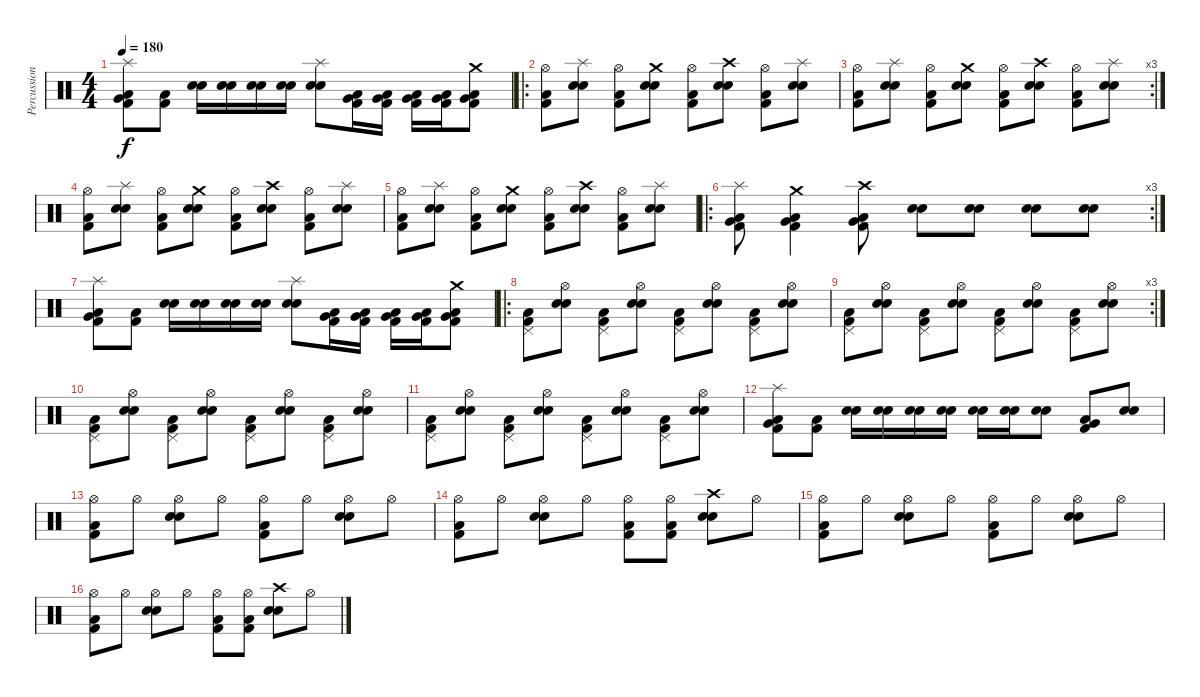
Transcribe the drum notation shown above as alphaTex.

\track ("Percussions" "Percussion") {instrument percussion}
\staff {score}
\articulation defaults
\ts (4 4)
\tempo 180
\clef neutral
\ks c
("Splash (hit)" "Kick (hit) 2" "Low Floor Tom (hit)" "Very Low Tom (hit)").8{dy f} ("Kick (hit) 2" "Low Floor Tom (hit)").8 ("Snare (hit) 2" "Electric Snare (hit)").16 ("Snare (hit) 2" "Electric Snare (hit)").16 ("Snare (hit) 2" "Electric Snare (hit)").16 ("Snare (hit) 2" "Electric Snare (hit)").16 ("Splash (hit)" "Snare (hit) 2" "Electric Snare (hit)").8 ("Kick (hit) 2" "Low Floor Tom (hit)" "Very Low Tom (hit)").16 ("Kick (hit) 2" "Low Floor Tom (hit)" "Very Low Tom (hit)").16 ("Kick (hit) 2" "Low Floor Tom (hit)" "Very Low Tom (hit)").16 ("Kick (hit) 2" "Low Floor Tom (hit)" "Very Low Tom (hit)").16 ("Crash medium (hit)" "Kick (hit) 2" "Low Floor Tom (hit)" "Very Low Tom (hit)").8 |
\ro
("Hi-Hat (open)" "Kick (hit) 2" "Low Floor Tom (hit)").8 ("Splash (hit)" "Snare (hit) 2" "Electric Snare (hit)").8 ("Hi-Hat (open)" "Kick (hit) 2" "Low Floor Tom (hit)").8 ("Crash medium (hit)" "Snare (hit) 2" "Electric Snare (hit)").8 ("Hi-Hat (open)" "Kick (hit) 2" "Low Floor Tom (hit)").8 ("Crash high (hit)" "Snare (hit) 2" "Electric Snare (hit)").8 ("Hi-Hat (open)" "Kick (hit) 2" "Low Floor Tom (hit)").8 ("Splash (hit)" "Snare (hit) 2" "Electric Snare (hit)").8 |
\rc 3
("Hi-Hat (open)" "Kick (hit) 2" "Low Floor Tom (hit)").8 ("Splash (hit)" "Snare (hit) 2" "Electric Snare (hit)").8 ("Hi-Hat (open)" "Kick (hit) 2" "Low Floor Tom (hit)").8 ("Crash medium (hit)" "Snare (hit) 2" "Electric Snare (hit)").8 ("Hi-Hat (open)" "Kick (hit) 2" "Low Floor Tom (hit)").8 ("Crash high (hit)" "Snare (hit) 2" "Electric Snare (hit)").8 ("Hi-Hat (open)" "Kick (hit) 2" "Low Floor Tom (hit)").8 ("Splash (hit)" "Snare (hit) 2" "Electric Snare (hit)").8 |
("Hi-Hat (open)" "Kick (hit) 2" "Low Floor Tom (hit)").8 ("Splash (hit)" "Snare (hit) 2" "Electric Snare (hit)").8 ("Hi-Hat (open)" "Kick (hit) 2" "Low Floor Tom (hit)").8 ("Crash medium (hit)" "Snare (hit) 2" "Electric Snare (hit)").8 ("Hi-Hat (open)" "Kick (hit) 2" "Low Floor Tom (hit)").8 ("Crash high (hit)" "Snare (hit) 2" "Electric Snare (hit)").8 ("Hi-Hat (open)" "Kick (hit) 2" "Low Floor Tom (hit)").8 ("Splash (hit)" "Snare (hit) 2" "Electric Snare (hit)").8 |
("Hi-Hat (open)" "Kick (hit) 2" "Low Floor Tom (hit)").8 ("Splash (hit)" "Snare (hit) 2" "Electric Snare (hit)").8 ("Hi-Hat (open)" "Kick (hit) 2" "Low Floor Tom (hit)").8 ("Crash medium (hit)" "Snare (hit) 2" "Electric Snare (hit)").8 ("Hi-Hat (open)" "Kick (hit) 2" "Low Floor Tom (hit)").8 ("Crash high (hit)" "Snare (hit) 2" "Electric Snare (hit)").8 ("Hi-Hat (open)" "Kick (hit) 2" "Low Floor Tom (hit)").8 ("Splash (hit)" "Snare (hit) 2" "Electric Snare (hit)").8 |
\ro
\rc 3
("Splash (hit)" "Kick (hit) 2" "Low Floor Tom (hit)" "Very Low Tom (hit)").8 ("Crash medium (hit)" "Kick (hit) 2" "Low Floor Tom (hit)" "Very Low Tom (hit)").4 ("Crash high (hit)" "Kick (hit) 2" "Low Floor Tom (hit)" "Very Low Tom (hit)").8 ("Snare (hit) 2" "Electric Snare (hit)").8 ("Snare (hit) 2" "Electric Snare (hit)").8 ("Snare (hit) 2" "Electric Snare (hit)").8 ("Snare (hit) 2" "Electric Snare (hit)").8 |
("Splash (hit)" "Kick (hit) 2" "Low Floor Tom (hit)" "Very Low Tom (hit)").8 ("Kick (hit) 2" "Low Floor Tom (hit)").8 ("Snare (hit) 2" "Electric Snare (hit)").16 ("Snare (hit) 2" "Electric Snare (hit)").16 ("Snare (hit) 2" "Electric Snare (hit)").16 ("Snare (hit) 2" "Electric Snare (hit)").16 ("Splash (hit)" "Snare (hit) 2" "Electric Snare (hit)").8 ("Kick (hit) 2" "Low Floor Tom (hit)" "Very Low Tom (hit)").16 ("Kick (hit) 2" "Low Floor Tom (hit)" "Very Low Tom (hit)").16 ("Kick (hit) 2" "Low Floor Tom (hit)" "Very Low Tom (hit)").16 ("Kick (hit) 2" "Low Floor Tom (hit)" "Very Low Tom (hit)").16 ("Crash medium (hit)" "Kick (hit) 2" "Low Floor Tom (hit)" "Very Low Tom (hit)").8 |
\ro
("Pedal Hi-Hat (hit)" "Kick (hit) 2" "Low Floor Tom (hit)").8 ("Hi-Hat (open)" "Snare (hit) 2" "Electric Snare (hit)").8 ("Pedal Hi-Hat (hit)" "Kick (hit) 2" "Low Floor Tom (hit)").8 ("Hi-Hat (open)" "Snare (hit) 2" "Electric Snare (hit)").8 ("Pedal Hi-Hat (hit)" "Kick (hit) 2" "Low Floor Tom (hit)").8 ("Hi-Hat (open)" "Snare (hit) 2" "Electric Snare (hit)").8 ("Pedal Hi-Hat (hit)" "Kick (hit) 2" "Low Floor Tom (hit)").8 ("Hi-Hat (open)" "Snare (hit) 2" "Electric Snare (hit)").8 |
\rc 3
("Pedal Hi-Hat (hit)" "Kick (hit) 2" "Low Floor Tom (hit)").8 ("Hi-Hat (open)" "Snare (hit) 2" "Electric Snare (hit)").8 ("Pedal Hi-Hat (hit)" "Kick (hit) 2" "Low Floor Tom (hit)").8 ("Hi-Hat (open)" "Snare (hit) 2" "Electric Snare (hit)").8 ("Pedal Hi-Hat (hit)" "Kick (hit) 2" "Low Floor Tom (hit)").8 ("Hi-Hat (open)" "Snare (hit) 2" "Electric Snare (hit)").8 ("Pedal Hi-Hat (hit)" "Kick (hit) 2" "Low Floor Tom (hit)").8 ("Hi-Hat (open)" "Snare (hit) 2" "Electric Snare (hit)").8 |
("Pedal Hi-Hat (hit)" "Kick (hit) 2" "Low Floor Tom (hit)").8 ("Hi-Hat (open)" "Snare (hit) 2" "Electric Snare (hit)").8 ("Pedal Hi-Hat (hit)" "Kick (hit) 2" "Low Floor Tom (hit)").8 ("Hi-Hat (open)" "Snare (hit) 2" "Electric Snare (hit)").8 ("Pedal Hi-Hat (hit)" "Kick (hit) 2" "Low Floor Tom (hit)").8 ("Hi-Hat (open)" "Snare (hit) 2" "Electric Snare (hit)").8 ("Pedal Hi-Hat (hit)" "Kick (hit) 2" "Low Floor Tom (hit)").8 ("Hi-Hat (open)" "Snare (hit) 2" "Electric Snare (hit)").8 |
("Pedal Hi-Hat (hit)" "Kick (hit) 2" "Low Floor Tom (hit)").8 ("Hi-Hat (open)" "Snare (hit) 2" "Electric Snare (hit)").8 ("Pedal Hi-Hat (hit)" "Kick (hit) 2" "Low Floor Tom (hit)").8 ("Hi-Hat (open)" "Snare (hit) 2" "Electric Snare (hit)").8 ("Pedal Hi-Hat (hit)" "Kick (hit) 2" "Low Floor Tom (hit)").8 ("Hi-Hat (open)" "Snare (hit) 2" "Electric Snare (hit)").8 ("Pedal Hi-Hat (hit)" "Kick (hit) 2" "Low Floor Tom (hit)").8 ("Hi-Hat (open)" "Snare (hit) 2" "Electric Snare (hit)").8 |
("Splash (hit)" "Kick (hit) 2" "Low Floor Tom (hit)" "Very Low Tom (hit)").8 ("Kick (hit) 2" "Low Floor Tom (hit)").8 ("Snare (hit) 2" "Electric Snare (hit)").16 ("Snare (hit) 2" "Electric Snare (hit)").16 ("Snare (hit) 2" "Electric Snare (hit)").16 ("Snare (hit) 2" "Electric Snare (hit)").16 ("Snare (hit) 2" "Electric Snare (hit)").16 ("Snare (hit) 2" "Electric Snare (hit)").16 ("Snare (hit) 2" "Electric Snare (hit)").8 ("Kick (hit) 2" "Low Floor Tom (hit)" "Very Low Tom (hit)").8 ("Snare (hit) 2" "Electric Snare (hit)").8 |
("Hi-Hat (open)" "Kick (hit) 2" "Low Floor Tom (hit)").8 "Hi-Hat (open)".8 ("Hi-Hat (open)" "Snare (hit) 2" "Electric Snare (hit)").8 "Hi-Hat (open)".8 ("Hi-Hat (open)" "Kick (hit) 2" "Low Floor Tom (hit)").8 "Hi-Hat (open)".8 ("Hi-Hat (open)" "Snare (hit) 2" "Electric Snare (hit)").8 "Hi-Hat (open)".8 |
("Hi-Hat (open)" "Kick (hit) 2" "Low Floor Tom (hit)").8 "Hi-Hat (open)".8 ("Hi-Hat (open)" "Snare (hit) 2" "Electric Snare (hit)").8 "Hi-Hat (open)".8 ("Hi-Hat (open)" "Kick (hit) 2" "Low Floor Tom (hit)").8 ("Hi-Hat (open)" "Kick (hit) 2" "Low Floor Tom (hit)").8 ("Crash high (hit)" "Snare (hit) 2" "Electric Snare (hit)").8 "Hi-Hat (open)".8 |
("Hi-Hat (open)" "Kick (hit) 2" "Low Floor Tom (hit)").8 "Hi-Hat (open)".8 ("Hi-Hat (open)" "Snare (hit) 2" "Electric Snare (hit)").8 "Hi-Hat (open)".8 ("Hi-Hat (open)" "Kick (hit) 2" "Low Floor Tom (hit)").8 "Hi-Hat (open)".8 ("Hi-Hat (open)" "Snare (hit) 2" "Electric Snare (hit)").8 "Hi-Hat (open)".8 |
("Hi-Hat (open)" "Kick (hit) 2" "Low Floor Tom (hit)").8 "Hi-Hat (open)".8 ("Hi-Hat (open)" "Snare (hit) 2" "Electric Snare (hit)").8 "Hi-Hat (open)".8 ("Hi-Hat (open)" "Kick (hit) 2" "Low Floor Tom (hit)").8 ("Hi-Hat (open)" "Kick (hit) 2" "Low Floor Tom (hit)").8 ("Crash high (hit)" "Snare (hit) 2" "Electric Snare (hit)").8 "Hi-Hat (open)".8
